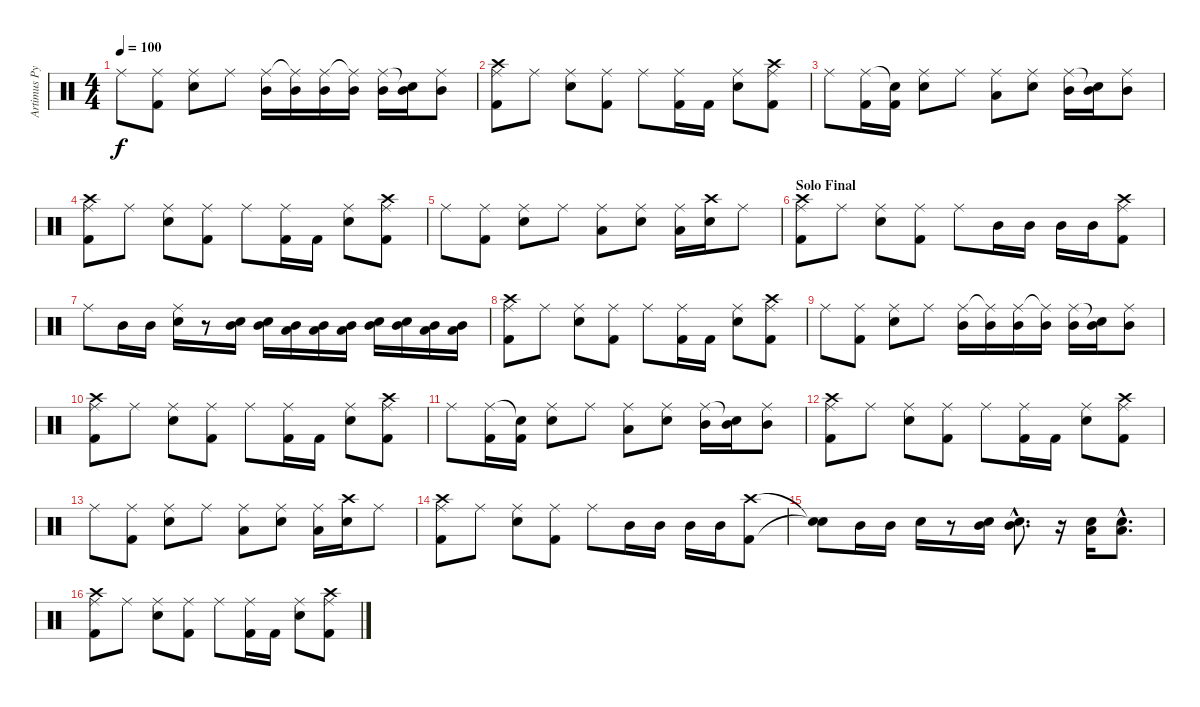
\track ("Artimus Pyle " "Artimus Py") {instrument percussion}
\staff {score}
\articulation defaults
\ts (4 4)
\tempo 100
\clef neutral
\ks c "Ride (middle)".8{dy f}
("Ride (middle)" "Kick (hit) 2").8 ("Ride (middle)" "Electric Snare (hit)").8 "Ride (middle)".8 ("Ride (middle)" "Mid Tom (hit)").16 ("Ride (middle)"{t} "Mid Tom (hit)").16 ("Ride (middle)" "Mid Tom (hit)").16 ("Ride (middle)"{t} "Mid Tom (hit)").16 ("Ride (middle)" "Mid Tom (hit)").16 ("Snare (hit)"{t} "Mid Tom (hit)").16 ("Ride (middle)" "Mid Tom (hit)").8 |
("Crash high (hit)" "Ride (middle)" "Kick (hit) 2").8 "Ride (middle)".8 ("Ride (middle)" "Electric Snare (hit)").8 ("Ride (middle)" "Kick (hit) 2").8 "Ride (middle)".8 ("Ride (middle)" "Kick (hit) 2").16 "Kick (hit) 2".16 ("Ride (middle)" "Electric Snare (hit)").8 ("Crash high (hit)" "Ride (middle)" "Kick (hit) 2").8 |
"Ride (middle)".8 ("Ride (middle)" "Kick (hit) 2").16 ("Snare (hit)"{t} "Kick (hit) 2").16 ("Ride (middle)" "Electric Snare (hit)").8 "Ride (middle)".8 ("Ride (middle)" "Low Tom (hit)").8 ("Ride (middle)" "Electric Snare (hit)").8 ("Ride (middle)" "Mid Tom (hit)").16 ("Snare (hit)"{t} "Mid Tom (hit)").16 ("Ride (middle)" "Mid Tom (hit)").8 |
("Crash high (hit)" "Ride (middle)" "Kick (hit) 2").8 "Ride (middle)".8 ("Ride (middle)" "Electric Snare (hit)").8 ("Ride (middle)" "Kick (hit) 2").8 "Ride (middle)".8 ("Ride (middle)" "Kick (hit) 2").16 "Kick (hit) 2".16 ("Ride (middle)" "Electric Snare (hit)").8 ("Crash high (hit)" "Ride (middle)" "Kick (hit) 2").8 |
"Ride (middle)".8 ("Ride (middle)" "Kick (hit) 2").8 ("Ride (middle)" "Electric Snare (hit)").8 "Ride (middle)".8 ("Ride (middle)" "Low Tom (hit)").8 ("Ride (middle)" "Electric Snare (hit)").8 ("Ride (middle)" "Low Tom (hit)").16 ("Crash high (hit)" "Electric Snare (hit)").16 "Ride (middle)".8 |
\section ("" "Solo Final")
("Crash high (hit)" "Ride (middle)" "Kick (hit) 2").8 "Ride (middle)".8 ("Ride (middle)" "Electric Snare (hit)").8 ("Ride (middle)" "Kick (hit) 2").8 "Ride (middle)".8 "Mid Tom (hit)".16 "Mid Tom (hit)".16 "Mid Tom (hit)".16 "Mid Tom (hit)".16 ("Crash high (hit)" "Ride (middle)" "Kick (hit) 2").8 |
"Ride (middle)".8 "Mid Tom (hit)".16 "Mid Tom (hit)".16 ("Ride (middle)" "Electric Snare (hit)").16 r.8 ("Electric Snare (hit)" "Mid Tom (hit)").16 ("Electric Snare (hit)" "Mid Tom (hit)").16 ("Low Tom (hit)" "Mid Tom (hit)").16 ("Low Tom (hit)" "Mid Tom (hit)").16 ("Low Tom (hit)" "Mid Tom (hit)").16 ("Electric Snare (hit)" "Mid Tom (hit)").16 ("Electric Snare (hit)" "Mid Tom (hit)").16 ("Low Tom (hit)" "Mid Tom (hit)").16 ("Low Tom (hit)" "Mid Tom (hit)").16 |
("Crash high (hit)" "Ride (middle)" "Kick (hit) 2").8 "Ride (middle)".8 ("Ride (middle)" "Electric Snare (hit)").8 ("Ride (middle)" "Kick (hit) 2").8 "Ride (middle)".8 ("Ride (middle)" "Kick (hit) 2").16 "Kick (hit) 2".16 ("Ride (middle)" "Electric Snare (hit)").8 ("Crash high (hit)" "Ride (middle)" "Kick (hit) 2").8 |
"Ride (middle)".8 ("Ride (middle)" "Kick (hit) 2").8 ("Ride (middle)" "Electric Snare (hit)").8 "Ride (middle)".8 ("Ride (middle)" "Mid Tom (hit)").16 ("Ride (middle)"{t} "Mid Tom (hit)").16 ("Ride (middle)" "Mid Tom (hit)").16 ("Ride (middle)"{t} "Mid Tom (hit)").16 ("Ride (middle)" "Mid Tom (hit)").16 ("Snare (hit)"{t} "Mid Tom (hit)").16 ("Ride (middle)" "Mid Tom (hit)").8 |
("Crash high (hit)" "Ride (middle)" "Kick (hit) 2").8 "Ride (middle)".8 ("Ride (middle)" "Electric Snare (hit)").8 ("Ride (middle)" "Kick (hit) 2").8 "Ride (middle)".8 ("Ride (middle)" "Kick (hit) 2").16 "Kick (hit) 2".16 ("Ride (middle)" "Electric Snare (hit)").8 ("Crash high (hit)" "Ride (middle)" "Kick (hit) 2").8 |
"Ride (middle)".8 ("Ride (middle)" "Kick (hit) 2").16 ("Snare (hit)"{t} "Kick (hit) 2").16 ("Ride (middle)" "Electric Snare (hit)").8 "Ride (middle)".8 ("Ride (middle)" "Low Tom (hit)").8 ("Ride (middle)" "Electric Snare (hit)").8 ("Ride (middle)" "Mid Tom (hit)").16 ("Snare (hit)"{t} "Mid Tom (hit)").16 ("Ride (middle)" "Mid Tom (hit)").8 |
("Crash high (hit)" "Ride (middle)" "Kick (hit) 2").8 "Ride (middle)".8 ("Ride (middle)" "Electric Snare (hit)").8 ("Ride (middle)" "Kick (hit) 2").8 "Ride (middle)".8 ("Ride (middle)" "Kick (hit) 2").16 "Kick (hit) 2".16 ("Ride (middle)" "Electric Snare (hit)").8 ("Crash high (hit)" "Ride (middle)" "Kick (hit) 2").8 |
"Ride (middle)".8 ("Ride (middle)" "Kick (hit) 2").8 ("Ride (middle)" "Electric Snare (hit)").8 "Ride (middle)".8 ("Ride (middle)" "Low Tom (hit)").8 ("Ride (middle)" "Electric Snare (hit)").8 ("Ride (middle)" "Low Tom (hit)").16 ("Crash high (hit)" "Electric Snare (hit)").16 "Ride (middle)".8 |
("Crash high (hit)" "Ride (middle)" "Kick (hit) 2").8 "Ride (middle)".8 ("Ride (middle)" "Electric Snare (hit)").8 ("Ride (middle)" "Kick (hit) 2").8 "Ride (middle)".8 "Mid Tom (hit)".16 "Mid Tom (hit)".16 "Mid Tom (hit)".16 "Mid Tom (hit)".16 ("Crash high (hit)" "Kick (hit) 2").8 |
("Snare (hit)"{t} "Snare (hit)"{t}).8 "Mid Tom (hit)".16 "Mid Tom (hit)".16 "Electric Snare (hit)".16 r.8 ("Electric Snare (hit)" "Mid Tom (hit)").16 ("Electric Snare (hit)"{hac} "Mid Tom (hit)"{hac}).8{d} r.16 ("Electric Snare (hit)" "Low Tom (hit)").16 ("Electric Snare (hit)"{hac} "Low Tom (hit)"{hac}).8{d} |
("Crash high (hit)" "Ride (middle)" "Kick (hit) 2").8 "Ride (middle)".8 ("Ride (middle)" "Electric Snare (hit)").8 ("Ride (middle)" "Kick (hit) 2").8 "Ride (middle)".8 ("Ride (middle)" "Kick (hit) 2").16 "Kick (hit) 2".16 ("Ride (middle)" "Electric Snare (hit)").8 ("Crash high (hit)" "Ride (middle)" "Kick (hit) 2").8
